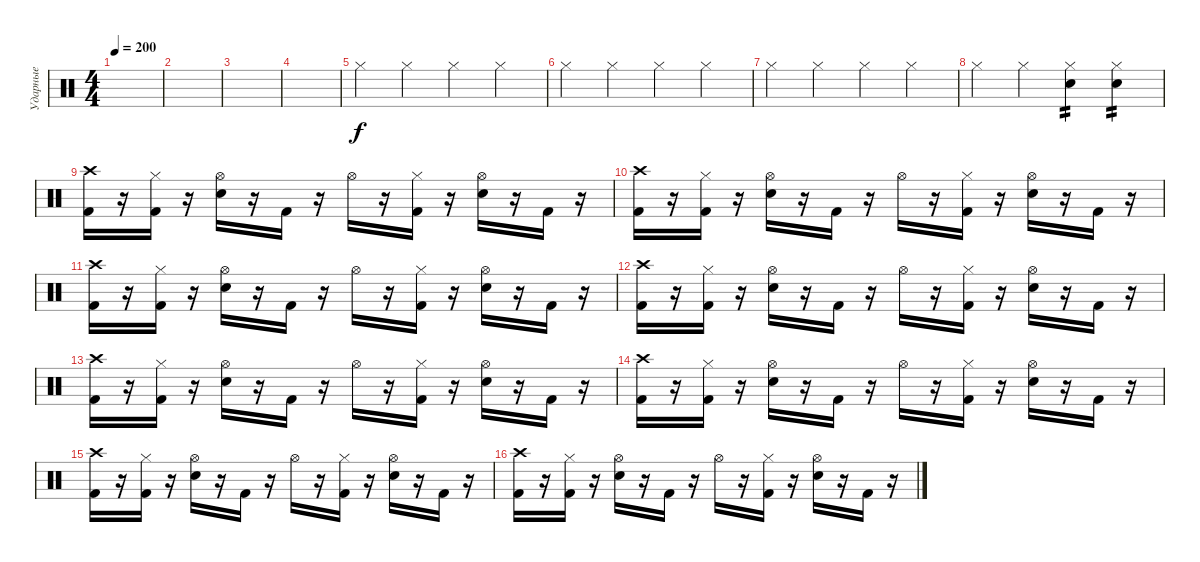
\track ("Ударные" "Ударные") {instrument percussion}
\staff {score}
\articulation defaults
\ts (4 4)
\tempo 200
\clef neutral
\ks c
|
|
|
|
"Hi-Hat (closed)".4 "Hi-Hat (closed)".4 "Hi-Hat (closed)".4 "Hi-Hat (closed)".4 |
"Hi-Hat (closed)".4 "Hi-Hat (closed)".4 "Hi-Hat (closed)".4 "Hi-Hat (closed)".4 |
"Hi-Hat (closed)".4 "Hi-Hat (closed)".4 "Hi-Hat (closed)".4 "Hi-Hat (closed)".4 |
"Hi-Hat (closed)".4 "Hi-Hat (closed)".4 ("Hi-Hat (closed)" "Electric Snare (hit)").4{tp 2} ("Hi-Hat (closed)" "Electric Snare (hit)").4{tp 2} |
("Crash high (hit)" "Kick (hit) 2").16 r.16 ("Hi-Hat (closed)" "Kick (hit) 2").16 r.16 ("Hi-Hat (open)" "Electric Snare (hit)").16 r.16 "Kick (hit) 2".16 r.16 "Hi-Hat (open)".16 r.16 ("Hi-Hat (closed)" "Kick (hit) 2").16 r.16 ("Hi-Hat (open)" "Electric Snare (hit)").16 r.16 "Kick (hit) 2".16 r.16 |
("Crash high (hit)" "Kick (hit) 2").16 r.16 ("Hi-Hat (closed)" "Kick (hit) 2").16 r.16 ("Hi-Hat (open)" "Electric Snare (hit)").16 r.16 "Kick (hit) 2".16 r.16 "Hi-Hat (open)".16 r.16 ("Hi-Hat (closed)" "Kick (hit) 2").16 r.16 ("Hi-Hat (open)" "Electric Snare (hit)").16 r.16 "Kick (hit) 2".16 r.16 |
("Crash high (hit)" "Kick (hit) 2").16 r.16 ("Hi-Hat (closed)" "Kick (hit) 2").16 r.16 ("Hi-Hat (open)" "Electric Snare (hit)").16 r.16 "Kick (hit) 2".16 r.16 "Hi-Hat (open)".16 r.16 ("Hi-Hat (closed)" "Kick (hit) 2").16 r.16 ("Hi-Hat (open)" "Electric Snare (hit)").16 r.16 "Kick (hit) 2".16 r.16 |
("Crash high (hit)" "Kick (hit) 2").16 r.16 ("Hi-Hat (closed)" "Kick (hit) 2").16 r.16 ("Hi-Hat (open)" "Electric Snare (hit)").16 r.16 "Kick (hit) 2".16 r.16 "Hi-Hat (open)".16 r.16 ("Hi-Hat (closed)" "Kick (hit) 2").16 r.16 ("Hi-Hat (open)" "Electric Snare (hit)").16 r.16 "Kick (hit) 2".16 r.16 |
("Crash high (hit)" "Kick (hit) 2").16 r.16 ("Hi-Hat (closed)" "Kick (hit) 2").16 r.16 ("Hi-Hat (open)" "Electric Snare (hit)").16 r.16 "Kick (hit) 2".16 r.16 "Hi-Hat (open)".16 r.16 ("Hi-Hat (closed)" "Kick (hit) 2").16 r.16 ("Hi-Hat (open)" "Electric Snare (hit)").16 r.16 "Kick (hit) 2".16 r.16 |
("Crash high (hit)" "Kick (hit) 2").16 r.16 ("Hi-Hat (closed)" "Kick (hit) 2").16 r.16 ("Hi-Hat (open)" "Electric Snare (hit)").16 r.16 "Kick (hit) 2".16 r.16 "Hi-Hat (open)".16 r.16 ("Hi-Hat (closed)" "Kick (hit) 2").16 r.16 ("Hi-Hat (open)" "Electric Snare (hit)").16 r.16 "Kick (hit) 2".16 r.16 |
("Crash high (hit)" "Kick (hit) 2").16 r.16 ("Hi-Hat (closed)" "Kick (hit) 2").16 r.16 ("Hi-Hat (open)" "Electric Snare (hit)").16 r.16 "Kick (hit) 2".16 r.16 "Hi-Hat (open)".16 r.16 ("Hi-Hat (closed)" "Kick (hit) 2").16 r.16 ("Hi-Hat (open)" "Electric Snare (hit)").16 r.16 "Kick (hit) 2".16 r.16 |
("Crash high (hit)" "Kick (hit) 2").16 r.16 ("Hi-Hat (closed)" "Kick (hit) 2").16 r.16 ("Hi-Hat (open)" "Electric Snare (hit)").16 r.16 "Kick (hit) 2".16 r.16 "Hi-Hat (open)".16 r.16 ("Hi-Hat (closed)" "Kick (hit) 2").16 r.16 ("Hi-Hat (open)" "Electric Snare (hit)").16 r.16 "Kick (hit) 2".16 r.16
